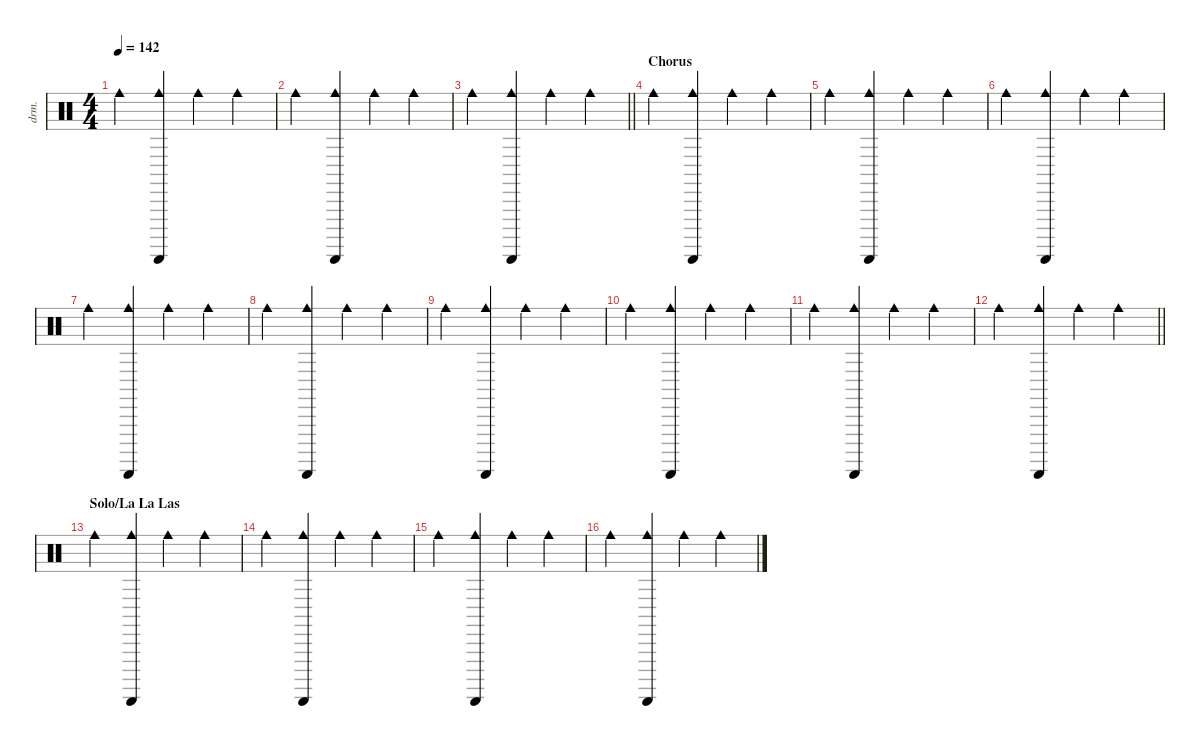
\defaultSystemsLayout 4
\hideDynamics
\bracketExtendMode nobrackets
\otherSystemsTrackNameOrientation horizontal
\track ("Percussion" "drm.") {instrument percussion}
\staff {score}
\articulation defaults
\ts (4 4)
\tempo 142
\clef neutral
\ks c "Cowbell medium (hit)".4{dy mf beam Down}
("Guiro (scrap-return)" "Cowbell medium (hit)").4{dy p beam Up} "Cowbell medium (hit)".4{dy mf beam Down} "Cowbell medium (hit)".4{beam Down} |
"Cowbell medium (hit)".4{beam Down} ("Guiro (scrap-return)" "Cowbell medium (hit)").4{dy p beam Up} "Cowbell medium (hit)".4{dy mf beam Down} "Cowbell medium (hit)".4{beam Down} |
\barLineRight lightlight "Cowbell medium (hit)".4{beam Down}
("Guiro (scrap-return)" "Cowbell medium (hit)").4{dy p beam Up} "Cowbell medium (hit)".4{dy mf beam Down} "Cowbell medium (hit)".4{beam Down} |
\section ("" "Chorus")
"Cowbell medium (hit)".4{beam Down} ("Guiro (scrap-return)" "Cowbell medium (hit)").4{dy p beam Up} "Cowbell medium (hit)".4{dy mf beam Down} "Cowbell medium (hit)".4{beam Down} |
"Cowbell medium (hit)".4{beam Down} ("Guiro (scrap-return)" "Cowbell medium (hit)").4{dy p beam Up} "Cowbell medium (hit)".4{dy mf beam Down} "Cowbell medium (hit)".4{beam Down} |
"Cowbell medium (hit)".4{beam Down} ("Guiro (scrap-return)" "Cowbell medium (hit)").4{dy p beam Up} "Cowbell medium (hit)".4{dy mf beam Down} "Cowbell medium (hit)".4{beam Down} |
"Cowbell medium (hit)".4{beam Down} ("Guiro (scrap-return)" "Cowbell medium (hit)").4{dy p beam Up} "Cowbell medium (hit)".4{dy mf beam Down} "Cowbell medium (hit)".4{beam Down} |
"Cowbell medium (hit)".4{beam Down} ("Guiro (scrap-return)" "Cowbell medium (hit)").4{dy p beam Up} "Cowbell medium (hit)".4{dy mf beam Down} "Cowbell medium (hit)".4{beam Down} |
"Cowbell medium (hit)".4{beam Down} ("Guiro (scrap-return)" "Cowbell medium (hit)").4{dy p beam Up} "Cowbell medium (hit)".4{dy mf beam Down} "Cowbell medium (hit)".4{beam Down} |
"Cowbell medium (hit)".4{beam Down} ("Guiro (scrap-return)" "Cowbell medium (hit)").4{dy p beam Up} "Cowbell medium (hit)".4{dy mf beam Down} "Cowbell medium (hit)".4{beam Down} |
"Cowbell medium (hit)".4{beam Down} ("Guiro (scrap-return)" "Cowbell medium (hit)").4{dy p beam Up} "Cowbell medium (hit)".4{dy mf beam Down} "Cowbell medium (hit)".4{beam Down} |
\barLineRight lightlight "Cowbell medium (hit)".4{beam Down}
("Guiro (scrap-return)" "Cowbell medium (hit)").4{dy p beam Up} "Cowbell medium (hit)".4{dy mf beam Down} "Cowbell medium (hit)".4{beam Down} |
\section ("" "Solo/La La Las")
"Cowbell medium (hit)".4{beam Down} ("Guiro (scrap-return)" "Cowbell medium (hit)").4{dy p beam Up} "Cowbell medium (hit)".4{dy mf beam Down} "Cowbell medium (hit)".4{beam Down} |
"Cowbell medium (hit)".4{beam Down} ("Guiro (scrap-return)" "Cowbell medium (hit)").4{dy p beam Up} "Cowbell medium (hit)".4{dy mf beam Down} "Cowbell medium (hit)".4{beam Down} |
"Cowbell medium (hit)".4{beam Down} ("Guiro (scrap-return)" "Cowbell medium (hit)").4{dy p beam Up} "Cowbell medium (hit)".4{dy mf beam Down} "Cowbell medium (hit)".4{beam Down} |
"Cowbell medium (hit)".4{beam Down} ("Guiro (scrap-return)" "Cowbell medium (hit)").4{dy p beam Up} "Cowbell medium (hit)".4{dy mf beam Down} "Cowbell medium (hit)".4{beam Down}
